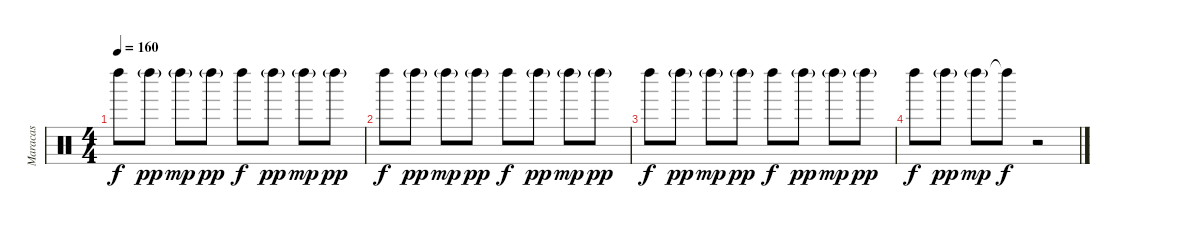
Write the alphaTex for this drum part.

\track ("Maracas" "Maracas") {instrument percussion}
\staff {score}
\articulation defaults
\ts (4 4)
\tempo 160
\clef neutral
\ks c "Left Maraca (hit)".8{dy f} "Left Maraca (hit)"{g}.8{dy pp} "Left Maraca (hit)"{g}.8{dy mp} "Left Maraca (hit)"{g}.8{dy pp} "Left Maraca (hit)".8{dy f} "Left Maraca (hit)"{g}.8{dy pp} "Left Maraca (hit)"{g}.8{dy mp} "Left Maraca (hit)"{g}.8{dy pp}
|
"Left Maraca (hit)".8{dy f} "Left Maraca (hit)"{g}.8{dy pp} "Left Maraca (hit)"{g}.8{dy mp} "Left Maraca (hit)"{g}.8{dy pp} "Left Maraca (hit)".8{dy f} "Left Maraca (hit)"{g}.8{dy pp} "Left Maraca (hit)"{g}.8{dy mp} "Left Maraca (hit)"{g}.8{dy pp} |
"Left Maraca (hit)".8{dy f} "Left Maraca (hit)"{g}.8{dy pp} "Left Maraca (hit)"{g}.8{dy mp} "Left Maraca (hit)"{g}.8{dy pp} "Left Maraca (hit)".8{dy f} "Left Maraca (hit)"{g}.8{dy pp} "Left Maraca (hit)"{g}.8{dy mp} "Left Maraca (hit)"{g}.8{dy pp} |
"Left Maraca (hit)".8{dy f} "Left Maraca (hit)"{g}.8{dy pp} "Left Maraca (hit)"{g}.8{dy mp} "Left Maraca (hit)"{t}.8{dy f} r.2
